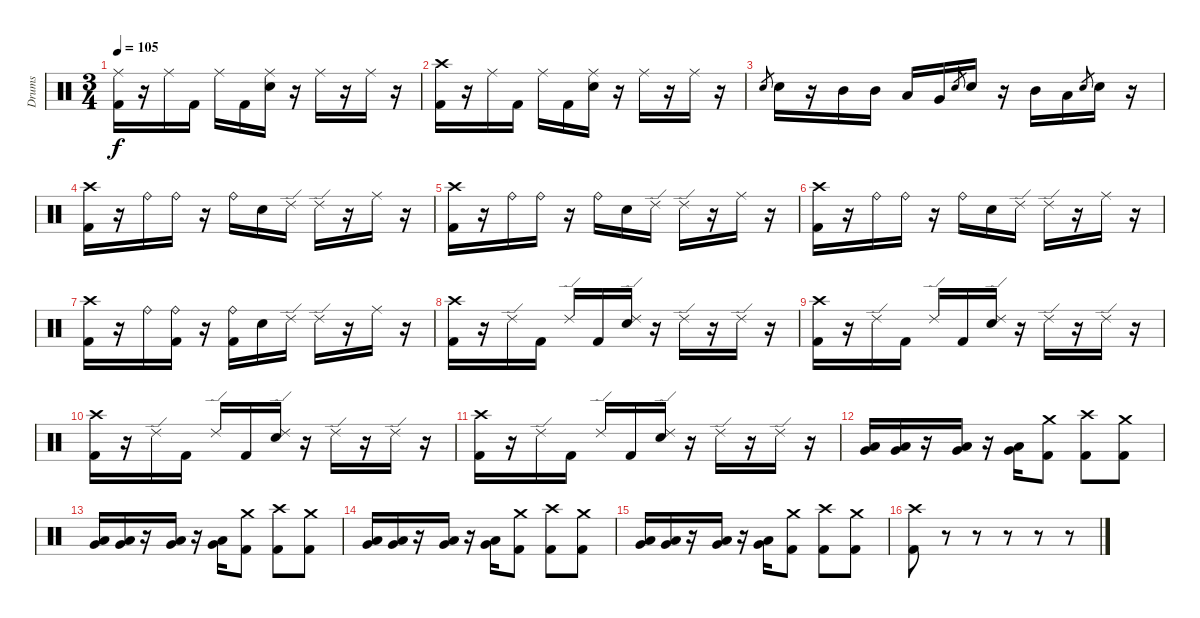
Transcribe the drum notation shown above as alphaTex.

\track ("Drums" "Drums") {instrument percussion}
\staff {score}
\articulation defaults
\ts (3 4)
\tempo 105
\clef neutral
\ks c
("Ride (middle)" "Kick (hit) 2").16{dy f} r.16 "Ride (middle)".16 "Kick (hit) 2".16 "Ride (middle)".16 "Kick (hit) 2".16 ("Ride (middle)" "Electric Snare (hit)").16 r.16 "Ride (middle)".16 r.16 "Ride (middle)".16 r.16 |
("Crash high (hit)" "Kick (hit) 2").16 r.16 "Ride (middle)".16 "Kick (hit) 2".16 "Ride (middle)".16 "Kick (hit) 2".16 ("Ride (middle)" "Electric Snare (hit)").16 r.16 "Ride (middle)".16 r.16 "Ride (middle)".16 r.16 |
"Electric Snare (hit)".8{gr} "Electric Snare (hit)".16 r.16 "Mid Tom (hit)".16 "Mid Tom (hit)".16 "Low Tom (hit)".16 "Very Low Tom (hit)".16 "Electric Snare (hit)".8{gr} "Electric Snare (hit)".16 r.16 "Mid Tom (hit)".16 "Low Tom (hit)".16 "Electric Snare (hit)".8{gr} "Electric Snare (hit)".16 r.16 |
("Crash high (hit)" "Kick (hit) 2").16 r.16 "Ride (bell)".16 "Ride (bell)".16 r.16 "Ride (bell)".16 "Electric Snare (hit)".16 "Ride (edge) 2".16 "Ride (edge) 2".16 r.16 "Ride (middle)".16 r.16 |
("Crash high (hit)" "Kick (hit) 2").16 r.16 "Ride (bell)".16 "Ride (bell)".16 r.16 "Ride (bell)".16 "Electric Snare (hit)".16 "Ride (edge) 2".16 "Ride (edge) 2".16 r.16 "Ride (middle)".16 r.16 |
("Crash high (hit)" "Kick (hit) 2").16 r.16 "Ride (bell)".16 "Ride (bell)".16 r.16 "Ride (bell)".16 "Electric Snare (hit)".16 "Ride (edge) 2".16 "Ride (edge) 2".16 r.16 "Ride (middle)".16 r.16 |
("Crash high (hit)" "Kick (hit) 2").16 r.16 "Ride (bell)".16 ("Ride (bell)" "Kick (hit) 2").16 r.16 ("Ride (bell)" "Kick (hit) 2").16 "Electric Snare (hit)".16 "Ride (edge) 2".16 "Ride (edge) 2".16 r.16 "Ride (middle)".16 r.16 |
("Crash high (hit)" "Kick (hit) 2").16 r.16 "Ride (edge) 2".16 "Kick (hit) 2".16 "Ride (edge) 2".16 "Kick (hit) 2".16 ("Ride (edge) 2" "Electric Snare (hit)").16 r.16 "Ride (edge) 2".16 r.16 "Ride (edge) 2".16 r.16 |
("Crash high (hit)" "Kick (hit) 2").16 r.16 "Ride (edge) 2".16 "Kick (hit) 2".16 "Ride (edge) 2".16 "Kick (hit) 2".16 ("Ride (edge) 2" "Electric Snare (hit)").16 r.16 "Ride (edge) 2".16 r.16 "Ride (edge) 2".16 r.16 |
("Crash high (hit)" "Kick (hit) 2").16 r.16 "Ride (edge) 2".16 "Kick (hit) 2".16 "Ride (edge) 2".16 "Kick (hit) 2".16 ("Ride (edge) 2" "Electric Snare (hit)").16 r.16 "Ride (edge) 2".16 r.16 "Ride (edge) 2".16 r.16 |
("Crash high (hit)" "Kick (hit) 2").16 r.16 "Ride (edge) 2".16 "Kick (hit) 2".16 "Ride (edge) 2".16 "Kick (hit) 2".16 ("Ride (edge) 2" "Electric Snare (hit)").16 r.16 "Ride (edge) 2".16 r.16 "Ride (edge) 2".16 r.16 |
("Low Tom (hit)" "Very Low Tom (hit)").16 ("Low Tom (hit)" "Very Low Tom (hit)").16 r.16 ("Low Tom (hit)" "Very Low Tom (hit)").16 r.16 ("Low Tom (hit)" "Very Low Tom (hit)").16 ("Crash medium (hit)" "Kick (hit) 2").8 ("Crash high (hit)" "Kick (hit) 2").8 ("Crash medium (hit)" "Kick (hit) 2").8 |
("Low Tom (hit)" "Very Low Tom (hit)").16 ("Low Tom (hit)" "Very Low Tom (hit)").16 r.16 ("Low Tom (hit)" "Very Low Tom (hit)").16 r.16 ("Low Tom (hit)" "Very Low Tom (hit)").16 ("Crash medium (hit)" "Kick (hit) 2").8 ("Crash high (hit)" "Kick (hit) 2").8 ("Crash medium (hit)" "Kick (hit) 2").8 |
("Low Tom (hit)" "Very Low Tom (hit)").16 ("Low Tom (hit)" "Very Low Tom (hit)").16 r.16 ("Low Tom (hit)" "Very Low Tom (hit)").16 r.16 ("Low Tom (hit)" "Very Low Tom (hit)").16 ("Crash medium (hit)" "Kick (hit) 2").8 ("Crash high (hit)" "Kick (hit) 2").8 ("Crash medium (hit)" "Kick (hit) 2").8 |
("Low Tom (hit)" "Very Low Tom (hit)").16 ("Low Tom (hit)" "Very Low Tom (hit)").16 r.16 ("Low Tom (hit)" "Very Low Tom (hit)").16 r.16 ("Low Tom (hit)" "Very Low Tom (hit)").16 ("Crash medium (hit)" "Kick (hit) 2").8 ("Crash high (hit)" "Kick (hit) 2").8 ("Crash medium (hit)" "Kick (hit) 2").8 |
("Crash high (hit)" "Kick (hit) 2").8 r.8 r.8 r.8 r.8 r.8
